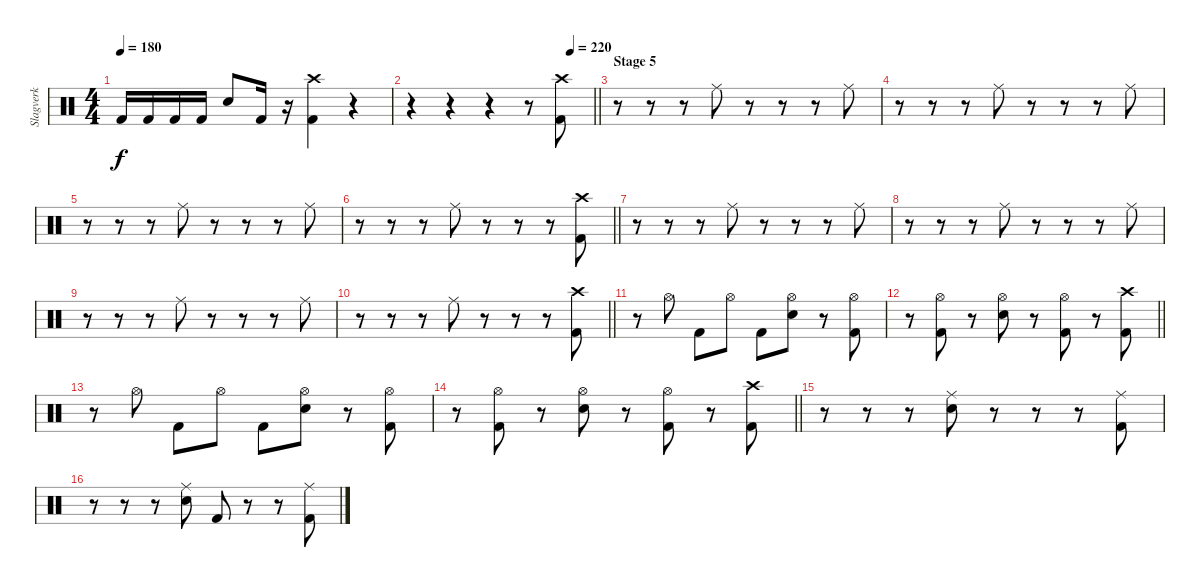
\track ("Slagverk" "Slagverk") {instrument percussion}
\staff {score}
\articulation defaults
\ts (4 4)
\tempo 180
\clef neutral
\ks c "Kick (hit) 2".16{dy f} "Kick (hit) 2".16 "Kick (hit) 2".16 "Kick (hit) 2".16 "Electric Snare (hit)".8 "Kick (hit) 2".16
r.16 ("Crash high (hit)" "Kick (hit) 2").4 r.4 |
\tempo (220 0.875)
\barLineRight lightlight
r.4 r.4 r.4 r.8 ("Crash high (hit)" "Kick (hit) 2").8 |
\section ("" "Stage 5")
r.8 r.8 r.8 "Ride (middle)".8 r.8 r.8 r.8 "Ride (middle)".8 |
r.8 r.8 r.8 "Ride (middle)".8 r.8 r.8 r.8 "Ride (middle)".8 |
r.8 r.8 r.8 "Ride (middle)".8 r.8 r.8 r.8 "Ride (middle)".8 |
\barLineRight lightlight
r.8 r.8 r.8 "Ride (middle)".8 r.8 r.8 r.8 ("Crash high (hit)" "Kick (hit) 2").8 |
r.8 r.8 r.8 "Ride (middle)".8 r.8 r.8 r.8 "Ride (middle)".8 |
r.8 r.8 r.8 "Ride (middle)".8 r.8 r.8 r.8 "Ride (middle)".8 |
r.8 r.8 r.8 "Ride (middle)".8 r.8 r.8 r.8 "Ride (middle)".8 |
\barLineRight lightlight
r.8 r.8 r.8 "Ride (middle)".8 r.8 r.8 r.8 ("Crash high (hit)" "Kick (hit) 2").8 |
r.8 "Hi-Hat (open)".8 "Kick (hit) 2".8 "Hi-Hat (open)".8 "Kick (hit) 2".8 ("Hi-Hat (open)" "Electric Snare (hit)").8 r.8 ("Hi-Hat (open)" "Kick (hit) 2").8 |
\barLineRight lightlight
r.8 ("Hi-Hat (open)" "Kick (hit) 2").8 r.8 ("Hi-Hat (open)" "Electric Snare (hit)").8 r.8 ("Hi-Hat (open)" "Kick (hit) 2").8 r.8 ("Crash high (hit)" "Kick (hit) 2").8 |
r.8 "Hi-Hat (open)".8 "Kick (hit) 2".8 "Hi-Hat (open)".8 "Kick (hit) 2".8 ("Hi-Hat (open)" "Electric Snare (hit)").8 r.8 ("Hi-Hat (open)" "Kick (hit) 2").8 |
\barLineRight lightlight
r.8 ("Hi-Hat (open)" "Kick (hit) 2").8 r.8 ("Hi-Hat (open)" "Electric Snare (hit)").8 r.8 ("Hi-Hat (open)" "Kick (hit) 2").8 r.8 ("Crash high (hit)" "Kick (hit) 2").8 |
r.8 r.8 r.8 ("Ride (middle)" "Electric Snare (hit)").8 r.8 r.8 r.8 ("Ride (middle)" "Kick (hit) 2").8 |
r.8 r.8 r.8 ("Ride (middle)" "Electric Snare (hit)").8 "Kick (hit) 2".8 r.8 r.8 ("Ride (middle)" "Kick (hit) 2").8
